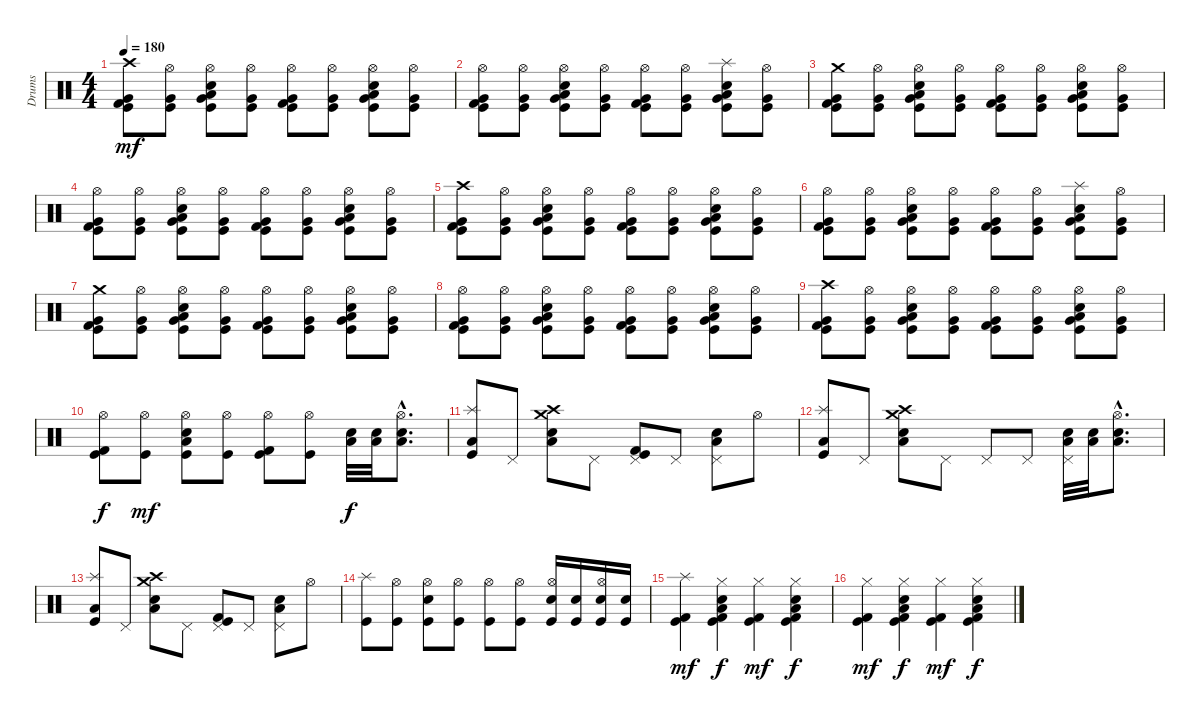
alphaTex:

\track ("Drums" "Drums") {instrument percussion}
\staff {score}
\articulation defaults
\ts (4 4)
\tempo 180
\clef neutral
\ks c
("Crash high (hit)" "Very Low Tom (hit)" "Kick (hit) 2" "Kick (hit)").8{dy mf} ("Hi-Hat (open)" "Very Low Tom (hit)" "Kick (hit)").8 ("Hi-Hat (open)" "Electric Snare (hit)" "Low Floor Tom (hit)" "Very Low Tom (hit)" "Kick (hit)").8 ("Hi-Hat (open)" "Very Low Tom (hit)" "Kick (hit)").8 ("Hi-Hat (open)" "Very Low Tom (hit)" "Kick (hit) 2" "Kick (hit)").8 ("Hi-Hat (open)" "Very Low Tom (hit)" "Kick (hit)").8 ("Hi-Hat (open)" "Electric Snare (hit)" "Low Floor Tom (hit)" "Very Low Tom (hit)" "Kick (hit)").8 ("Hi-Hat (open)" "Very Low Tom (hit)" "Kick (hit)").8 |
("Hi-Hat (open)" "Very Low Tom (hit)" "Kick (hit) 2" "Kick (hit)").8 ("Hi-Hat (open)" "Very Low Tom (hit)" "Kick (hit)").8 ("Hi-Hat (open)" "Electric Snare (hit)" "Low Floor Tom (hit)" "Very Low Tom (hit)" "Kick (hit)").8 ("Hi-Hat (open)" "Very Low Tom (hit)" "Kick (hit)").8 ("Hi-Hat (open)" "Very Low Tom (hit)" "Kick (hit) 2" "Kick (hit)").8 ("Hi-Hat (open)" "Very Low Tom (hit)" "Kick (hit)").8 ("Splash (hit)" "Electric Snare (hit)" "Low Floor Tom (hit)" "Very Low Tom (hit)" "Kick (hit)").8 ("Hi-Hat (open)" "Very Low Tom (hit)" "Kick (hit)").8 |
("Crash medium (hit)" "Very Low Tom (hit)" "Kick (hit) 2" "Kick (hit)").8 ("Hi-Hat (open)" "Very Low Tom (hit)" "Kick (hit)").8 ("Hi-Hat (open)" "Electric Snare (hit)" "Low Floor Tom (hit)" "Very Low Tom (hit)" "Kick (hit)").8 ("Hi-Hat (open)" "Very Low Tom (hit)" "Kick (hit)").8 ("Hi-Hat (open)" "Very Low Tom (hit)" "Kick (hit) 2" "Kick (hit)").8 ("Hi-Hat (open)" "Very Low Tom (hit)" "Kick (hit)").8 ("Hi-Hat (open)" "Electric Snare (hit)" "Low Floor Tom (hit)" "Very Low Tom (hit)" "Kick (hit)").8 ("Hi-Hat (open)" "Very Low Tom (hit)" "Kick (hit)").8 |
("Hi-Hat (open)" "Very Low Tom (hit)" "Kick (hit) 2" "Kick (hit)").8 ("Hi-Hat (open)" "Very Low Tom (hit)" "Kick (hit)").8 ("Hi-Hat (open)" "Electric Snare (hit)" "Low Floor Tom (hit)" "Very Low Tom (hit)" "Kick (hit)").8 ("Hi-Hat (open)" "Very Low Tom (hit)" "Kick (hit)").8 ("Hi-Hat (open)" "Very Low Tom (hit)" "Kick (hit) 2" "Kick (hit)").8 ("Hi-Hat (open)" "Very Low Tom (hit)" "Kick (hit)").8 ("Hi-Hat (open)" "Electric Snare (hit)" "Low Floor Tom (hit)" "Very Low Tom (hit)" "Kick (hit)").8 ("Hi-Hat (open)" "Very Low Tom (hit)" "Kick (hit)").8 |
("Crash high (hit)" "Very Low Tom (hit)" "Kick (hit) 2" "Kick (hit)").8 ("Hi-Hat (open)" "Very Low Tom (hit)" "Kick (hit)").8 ("Hi-Hat (open)" "Electric Snare (hit)" "Low Floor Tom (hit)" "Very Low Tom (hit)" "Kick (hit)").8 ("Hi-Hat (open)" "Very Low Tom (hit)" "Kick (hit)").8 ("Hi-Hat (open)" "Very Low Tom (hit)" "Kick (hit) 2" "Kick (hit)").8 ("Hi-Hat (open)" "Very Low Tom (hit)" "Kick (hit)").8 ("Hi-Hat (open)" "Electric Snare (hit)" "Low Floor Tom (hit)" "Very Low Tom (hit)" "Kick (hit)").8 ("Hi-Hat (open)" "Very Low Tom (hit)" "Kick (hit)").8 |
("Hi-Hat (open)" "Very Low Tom (hit)" "Kick (hit) 2" "Kick (hit)").8 ("Hi-Hat (open)" "Very Low Tom (hit)" "Kick (hit)").8 ("Hi-Hat (open)" "Electric Snare (hit)" "Low Floor Tom (hit)" "Very Low Tom (hit)" "Kick (hit)").8 ("Hi-Hat (open)" "Very Low Tom (hit)" "Kick (hit)").8 ("Hi-Hat (open)" "Very Low Tom (hit)" "Kick (hit) 2" "Kick (hit)").8 ("Hi-Hat (open)" "Very Low Tom (hit)" "Kick (hit)").8 ("Splash (hit)" "Electric Snare (hit)" "Low Floor Tom (hit)" "Very Low Tom (hit)" "Kick (hit)").8 ("Hi-Hat (open)" "Very Low Tom (hit)" "Kick (hit)").8 |
("Crash medium (hit)" "Very Low Tom (hit)" "Kick (hit) 2" "Kick (hit)").8 ("Hi-Hat (open)" "Very Low Tom (hit)" "Kick (hit)").8 ("Hi-Hat (open)" "Electric Snare (hit)" "Low Floor Tom (hit)" "Very Low Tom (hit)" "Kick (hit)").8 ("Hi-Hat (open)" "Very Low Tom (hit)" "Kick (hit)").8 ("Hi-Hat (open)" "Very Low Tom (hit)" "Kick (hit) 2" "Kick (hit)").8 ("Hi-Hat (open)" "Very Low Tom (hit)" "Kick (hit)").8 ("Hi-Hat (open)" "Electric Snare (hit)" "Low Floor Tom (hit)" "Very Low Tom (hit)" "Kick (hit)").8 ("Hi-Hat (open)" "Very Low Tom (hit)" "Kick (hit)").8 |
("Hi-Hat (open)" "Very Low Tom (hit)" "Kick (hit) 2" "Kick (hit)").8 ("Hi-Hat (open)" "Very Low Tom (hit)" "Kick (hit)").8 ("Hi-Hat (open)" "Electric Snare (hit)" "Low Floor Tom (hit)" "Very Low Tom (hit)" "Kick (hit)").8 ("Hi-Hat (open)" "Very Low Tom (hit)" "Kick (hit)").8 ("Hi-Hat (open)" "Very Low Tom (hit)" "Kick (hit) 2" "Kick (hit)").8 ("Hi-Hat (open)" "Very Low Tom (hit)" "Kick (hit)").8 ("Hi-Hat (open)" "Electric Snare (hit)" "Low Floor Tom (hit)" "Very Low Tom (hit)" "Kick (hit)").8 ("Hi-Hat (open)" "Very Low Tom (hit)" "Kick (hit)").8 |
("Crash high (hit)" "Very Low Tom (hit)" "Kick (hit) 2" "Kick (hit)").8 ("Hi-Hat (open)" "Very Low Tom (hit)" "Kick (hit)").8 ("Hi-Hat (open)" "Electric Snare (hit)" "Low Floor Tom (hit)" "Very Low Tom (hit)" "Kick (hit)").8 ("Hi-Hat (open)" "Very Low Tom (hit)" "Kick (hit)").8 ("Hi-Hat (open)" "Very Low Tom (hit)" "Kick (hit) 2" "Kick (hit)").8 ("Hi-Hat (open)" "Very Low Tom (hit)" "Kick (hit)").8 ("Hi-Hat (open)" "Electric Snare (hit)" "Low Floor Tom (hit)" "Very Low Tom (hit)" "Kick (hit)").8 ("Hi-Hat (open)" "Very Low Tom (hit)" "Kick (hit)").8 |
("Hi-Hat (open)" "Kick (hit) 2" "Kick (hit)").8{dy f} ("Hi-Hat (open)" "Kick (hit)").8{dy mf} ("Hi-Hat (open)" "Electric Snare (hit)" "Low Tom (hit)" "Kick (hit)").8 ("Hi-Hat (open)" "Kick (hit)").8 ("Hi-Hat (open)" "Kick (hit) 2" "Kick (hit)").8 ("Hi-Hat (open)" "Kick (hit)").8 ("Electric Snare (hit)" "Low Tom (hit)").32{dy f} ("Electric Snare (hit)" "Low Tom (hit)").32 ("Hi-Hat (open)"{hac} "Electric Snare (hit)"{hac} "Low Tom (hit)"{hac}).8{d} |
("Low Tom (hit)" "Kick (hit)" "Splash (hit)").8 "Pedal Hi-Hat (hit)".8 ("Electric Snare (hit)" "Low Tom (hit)" "Crash medium (hit)" "Crash high (hit)").8 "Pedal Hi-Hat (hit)".8 ("Pedal Hi-Hat (hit)" "Kick (hit)" "Kick (hit) 2").8 "Pedal Hi-Hat (hit)".8 ("Pedal Hi-Hat (hit)" "Electric Snare (hit)" "Low Tom (hit)").8 "Hi-Hat (open)".8 |
("Low Tom (hit)" "Kick (hit)" "Splash (hit)").8 "Pedal Hi-Hat (hit)".8 ("Electric Snare (hit)" "Low Tom (hit)" "Crash medium (hit)" "Crash high (hit)").8 "Pedal Hi-Hat (hit)".8 "Pedal Hi-Hat (hit)".8 "Pedal Hi-Hat (hit)".8 ("Pedal Hi-Hat (hit)" "Electric Snare (hit)" "Low Tom (hit)").32 ("Electric Snare (hit)" "Low Tom (hit)").32 ("Hi-Hat (open)"{hac} "Electric Snare (hit)"{hac} "Low Tom (hit)"{hac}).8{d} |
("Low Tom (hit)" "Kick (hit)" "Splash (hit)").8 "Pedal Hi-Hat (hit)".8 ("Electric Snare (hit)" "Low Tom (hit)" "Crash medium (hit)" "Crash high (hit)").8 "Pedal Hi-Hat (hit)".8 ("Pedal Hi-Hat (hit)" "Kick (hit)" "Kick (hit) 2").8 "Pedal Hi-Hat (hit)".8 ("Pedal Hi-Hat (hit)" "Electric Snare (hit)" "Low Tom (hit)").8 "Hi-Hat (open)".8 |
("Splash (hit)" "Kick (hit)").8 ("Hi-Hat (open)" "Kick (hit)").8 ("Hi-Hat (open)" "Electric Snare (hit)" "Kick (hit)").8 ("Hi-Hat (open)" "Kick (hit)").8 ("Hi-Hat (open)" "Kick (hit)").8 ("Hi-Hat (open)" "Kick (hit)").8 ("Hi-Hat (open)" "Electric Snare (hit)" "Kick (hit)").16 ("Electric Snare (hit)" "Kick (hit)").16 ("Hi-Hat (open)" "Electric Snare (hit)" "Kick (hit)").16 ("Electric Snare (hit)" "Kick (hit)").16 |
("Splash (hit)" "Kick (hit) 2" "Kick (hit)").4{dy mf} ("Hi-Hat (closed)" "Electric Snare (hit)" "Low Tom (hit)" "Kick (hit) 2" "Kick (hit)").4{dy f} ("Hi-Hat (closed)" "Kick (hit) 2" "Kick (hit)").4{dy mf} ("Hi-Hat (closed)" "Electric Snare (hit)" "Low Tom (hit)" "Kick (hit) 2" "Kick (hit)").4{dy f} |
("Hi-Hat (closed)" "Kick (hit) 2" "Kick (hit)").4{dy mf} ("Hi-Hat (closed)" "Electric Snare (hit)" "Low Tom (hit)" "Kick (hit) 2" "Kick (hit)").4{dy f} ("Hi-Hat (closed)" "Kick (hit) 2" "Kick (hit)").4{dy mf} ("Hi-Hat (closed)" "Electric Snare (hit)" "Low Tom (hit)" "Kick (hit) 2" "Kick (hit)").4{dy f}
